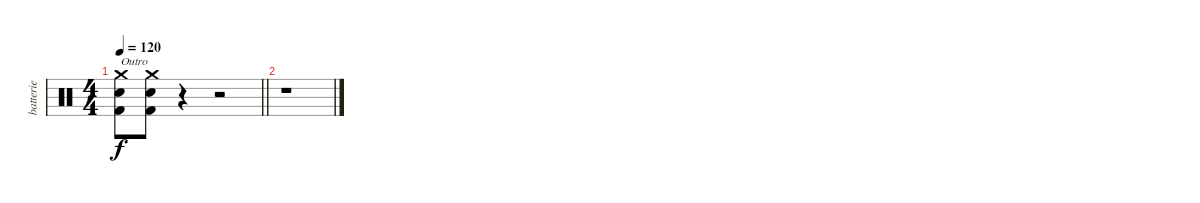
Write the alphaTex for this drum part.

\track ("batterie" "batterie") {instrument percussion}
\staff {score}
\articulation defaults
\ts (4 4)
\tempo 120
\clef neutral
\barLineRight lightlight
\ks c
("Crash medium (hit)" "Electric Snare (hit)" "Kick (hit) 2").8{txt "Outro" dy f} ("Crash medium (hit)" "Electric Snare (hit)" "Kick (hit) 2").8 r.4 r.2 |
r.1
